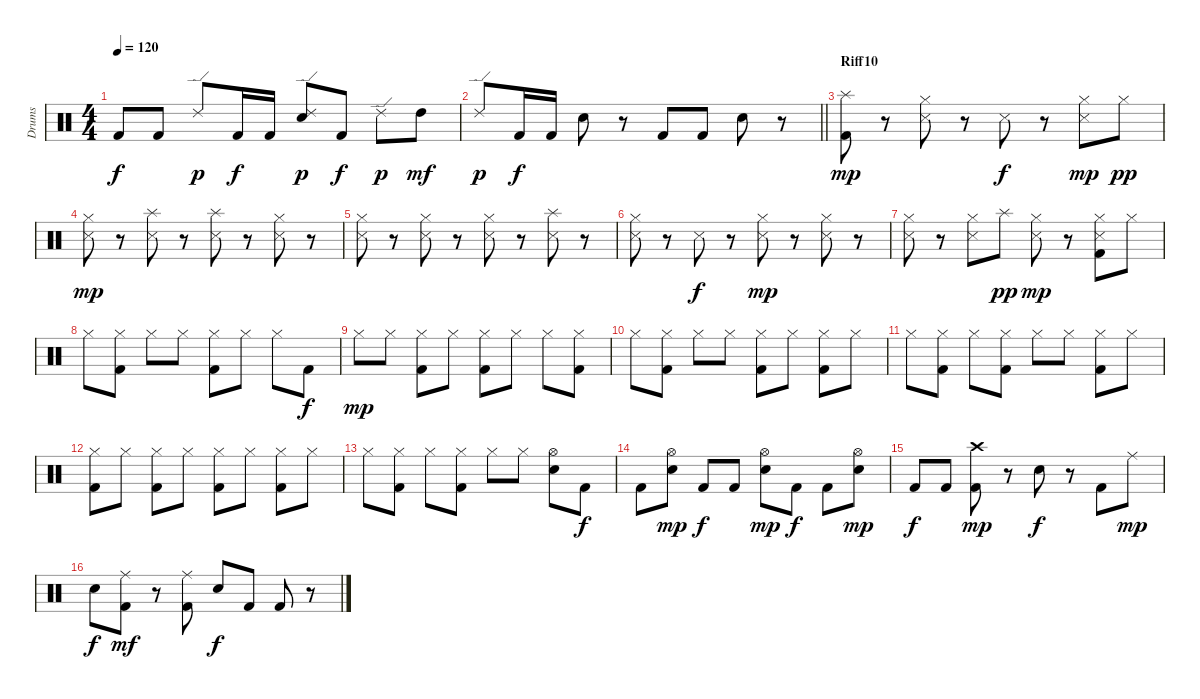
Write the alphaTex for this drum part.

\track ("Drums" "Drums") {instrument percussion}
\staff {score}
\articulation defaults
\ts (4 4)
\tempo 120
\clef neutral
\ks c "Kick (hit) 2".8{dy f} "Kick (hit) 2".8 "Ride (edge) 2".8{dy p} "Kick (hit) 2".16{dy f} "Kick (hit) 2".16
("Ride (edge) 2" "Snare (hit) 2").8{dy p} "Kick (hit) 2".8{dy f} "Ride (edge) 2".8{dy p} "High Tom (hit)".8{dy mf} |
\barLineRight lightlight "Ride (edge) 2".8{dy p} "Kick (hit) 2".16{dy f} "Kick (hit) 2".16 "Snare (hit) 2".8
r.8 "Kick (hit) 2".8 "Kick (hit) 2".8 "Snare (hit) 2".8 r.8 |
\section ("" "Riff10")
("Kick (hit) 2" "Splash (hit)").8{dy mp} r.8 ("Hi-Hat (closed)" "Snare (side stick) 3").8 r.8 "Snare (side stick) 3".8{dy f} r.8 ("Hi-Hat (closed)" "Snare (side stick) 3").8{dy mp} "Hi-Hat (closed)".8{dy pp} |
("Hi-Hat (closed)" "Snare (side stick) 3").8{dy mp} r.8 ("Splash (hit)" "Snare (side stick) 3").8 r.8 ("Splash (hit)" "Snare (side stick) 3").8 r.8 ("Hi-Hat (closed)" "Snare (side stick) 3").8 r.8 |
("Hi-Hat (closed)" "Snare (side stick) 3").8 r.8 ("Hi-Hat (closed)" "Snare (side stick) 3").8 r.8 ("Hi-Hat (closed)" "Snare (side stick) 3").8 r.8 ("Splash (hit)" "Snare (side stick) 3").8 r.8 |
("Hi-Hat (closed)" "Snare (side stick) 3").8 r.8 "Snare (side stick) 3".8{dy f} r.8 ("Hi-Hat (closed)" "Snare (side stick) 3").8{dy mp} r.8 ("Hi-Hat (closed)" "Snare (side stick) 3").8 r.8 |
("Hi-Hat (closed)" "Snare (side stick) 3").8 r.8 ("Hi-Hat (closed)" "Snare (side stick) 3").8 "Splash (hit)".8{dy pp} ("Hi-Hat (closed)" "Snare (side stick) 3").8{dy mp} r.8 ("Kick (hit) 2" "Hi-Hat (closed)" "Snare (side stick) 3").8 "Hi-Hat (closed)".8 |
"Hi-Hat (closed)".8 ("Kick (hit) 2" "Hi-Hat (closed)").8 "Hi-Hat (closed)".8 "Hi-Hat (closed)".8 ("Kick (hit) 2" "Hi-Hat (closed)").8 "Hi-Hat (closed)".8 "Hi-Hat (closed)".8 "Kick (hit) 2".8{dy f} |
"Hi-Hat (closed)".8{dy mp} "Hi-Hat (closed)".8 ("Kick (hit) 2" "Hi-Hat (closed)").8 "Hi-Hat (closed)".8 ("Kick (hit) 2" "Hi-Hat (closed)").8 "Hi-Hat (closed)".8 "Hi-Hat (closed)".8 ("Kick (hit) 2" "Hi-Hat (closed)").8 |
"Hi-Hat (closed)".8 ("Kick (hit) 2" "Hi-Hat (closed)").8 "Hi-Hat (closed)".8 "Hi-Hat (closed)".8 ("Kick (hit) 2" "Hi-Hat (closed)").8 "Hi-Hat (closed)".8 ("Kick (hit) 2" "Hi-Hat (closed)").8 "Hi-Hat (closed)".8 |
"Hi-Hat (closed)".8 ("Kick (hit) 2" "Hi-Hat (closed)").8 "Hi-Hat (closed)".8 ("Kick (hit) 2" "Hi-Hat (closed)").8 "Hi-Hat (closed)".8 "Hi-Hat (closed)".8 ("Kick (hit) 2" "Hi-Hat (closed)").8 "Hi-Hat (closed)".8 |
("Kick (hit) 2" "Hi-Hat (closed)").8 "Hi-Hat (closed)".8 ("Kick (hit) 2" "Hi-Hat (closed)").8 "Hi-Hat (closed)".8 ("Kick (hit) 2" "Hi-Hat (closed)").8 "Hi-Hat (closed)".8 ("Kick (hit) 2" "Hi-Hat (closed)").8 "Hi-Hat (closed)".8 |
"Hi-Hat (closed)".8 ("Kick (hit) 2" "Hi-Hat (closed)").8 "Hi-Hat (closed)".8 ("Kick (hit) 2" "Hi-Hat (closed)").8 "Hi-Hat (closed)".8 "Hi-Hat (closed)".8 ("Hi-Hat (open)" "Snare (hit) 2").8 "Kick (hit) 2".8{dy f} |
"Kick (hit) 2".8 ("Hi-Hat (open)" "Snare (hit) 2").8{dy mp} "Kick (hit) 2".8{dy f} "Kick (hit) 2".8 ("Hi-Hat (open)" "Snare (hit) 2").8{dy mp} "Kick (hit) 2".8{dy f} "Kick (hit) 2".8 ("Hi-Hat (open)" "Snare (hit) 2").8{dy mp} |
"Kick (hit) 2".8{dy f} "Kick (hit) 2".8 ("Kick (hit) 2" "Crash high (hit)").8{dy mp} r.8 "Snare (hit) 2".8{dy f} r.8 "Kick (hit) 2".8 "Ride (middle)".8{dy mp} |
"Snare (hit) 2".8{dy f} ("Kick (hit) 2" "Ride (middle)").8{dy mf} r.8 ("Kick (hit) 2" "Ride (middle)").8 "Snare (hit) 2".8{dy f} "Kick (hit) 2".8 "Kick (hit) 2".8 r.8
